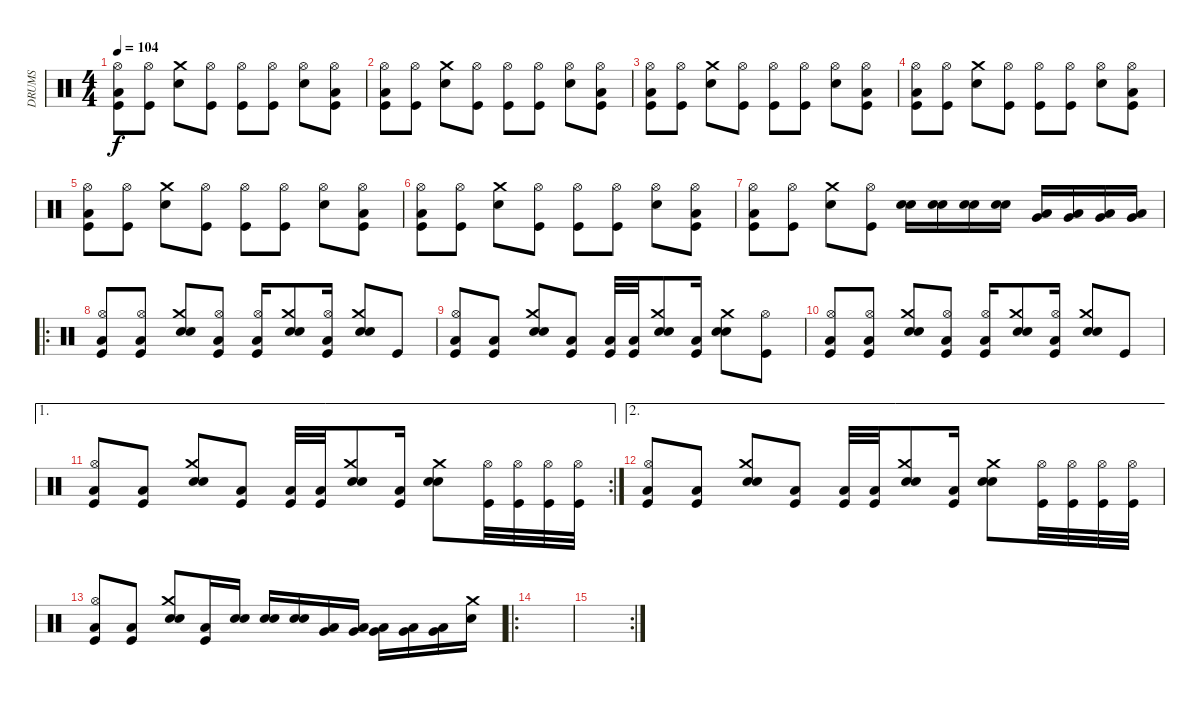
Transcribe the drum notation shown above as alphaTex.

\track ("DRUMS" "DRUMS") {instrument percussion}
\staff {score}
\articulation defaults
\ts (4 4)
\tempo 104
\clef neutral
\ks c
("Kick (hit)" "Hi-Hat (open)" "Low Floor Tom (hit)").8{dy f} ("Kick (hit)" "Hi-Hat (open)").8 ("Snare (hit) 2" "Crash medium (hit)").8 ("Kick (hit)" "Hi-Hat (open)").8 ("Kick (hit)" "Hi-Hat (open)").8 ("Kick (hit)" "Hi-Hat (open)").8 ("Snare (hit) 2" "Hi-Hat (open)").8 ("Kick (hit)" "Hi-Hat (open)" "Low Floor Tom (hit)").8 |
("Kick (hit)" "Hi-Hat (open)" "Low Floor Tom (hit)").8 ("Kick (hit)" "Hi-Hat (open)").8 ("Snare (hit) 2" "Crash medium (hit)").8 ("Kick (hit)" "Hi-Hat (open)").8 ("Kick (hit)" "Hi-Hat (open)").8 ("Kick (hit)" "Hi-Hat (open)").8 ("Snare (hit) 2" "Hi-Hat (open)").8 ("Kick (hit)" "Hi-Hat (open)" "Low Floor Tom (hit)").8 |
("Kick (hit)" "Hi-Hat (open)" "Low Floor Tom (hit)").8 ("Kick (hit)" "Hi-Hat (open)").8 ("Snare (hit) 2" "Crash medium (hit)").8 ("Kick (hit)" "Hi-Hat (open)").8 ("Kick (hit)" "Hi-Hat (open)").8 ("Kick (hit)" "Hi-Hat (open)").8 ("Snare (hit) 2" "Hi-Hat (open)").8 ("Kick (hit)" "Hi-Hat (open)" "Low Floor Tom (hit)").8 |
("Kick (hit)" "Hi-Hat (open)" "Low Floor Tom (hit)").8 ("Kick (hit)" "Hi-Hat (open)").8 ("Snare (hit) 2" "Crash medium (hit)").8 ("Kick (hit)" "Hi-Hat (open)").8 ("Kick (hit)" "Hi-Hat (open)").8 ("Kick (hit)" "Hi-Hat (open)").8 ("Snare (hit) 2" "Hi-Hat (open)").8 ("Kick (hit)" "Hi-Hat (open)" "Low Floor Tom (hit)").8 |
("Kick (hit)" "Hi-Hat (open)" "Low Floor Tom (hit)").8 ("Kick (hit)" "Hi-Hat (open)").8 ("Snare (hit) 2" "Crash medium (hit)").8 ("Kick (hit)" "Hi-Hat (open)").8 ("Kick (hit)" "Hi-Hat (open)").8 ("Kick (hit)" "Hi-Hat (open)").8 ("Snare (hit) 2" "Hi-Hat (open)").8 ("Kick (hit)" "Hi-Hat (open)" "Low Floor Tom (hit)").8 |
("Kick (hit)" "Hi-Hat (open)" "Low Floor Tom (hit)").8 ("Kick (hit)" "Hi-Hat (open)").8 ("Snare (hit) 2" "Crash medium (hit)").8 ("Kick (hit)" "Hi-Hat (open)").8 ("Kick (hit)" "Hi-Hat (open)").8 ("Kick (hit)" "Hi-Hat (open)").8 ("Snare (hit) 2" "Hi-Hat (open)").8 ("Kick (hit)" "Hi-Hat (open)" "Low Floor Tom (hit)").8 |
("Kick (hit)" "Hi-Hat (open)" "Low Floor Tom (hit)").8 ("Kick (hit)" "Hi-Hat (open)").8 ("Snare (hit) 2" "Crash medium (hit)").8 ("Kick (hit)" "Hi-Hat (open)").8 ("Snare (hit) 2" "Electric Snare (hit)").16 ("Snare (hit) 2" "Electric Snare (hit)").16 ("Snare (hit) 2" "Electric Snare (hit)").16 ("Snare (hit) 2" "Electric Snare (hit)").16 ("Low Tom (hit)" "Very Low Tom (hit)").16 ("Low Tom (hit)" "Very Low Tom (hit)").16 ("Low Tom (hit)" "Very Low Tom (hit)").16 ("Low Tom (hit)" "Very Low Tom (hit)").16 |
\ro
("Low Floor Tom (hit)" "Kick (hit)" "Hi-Hat (open)").8 ("Kick (hit)" "Low Floor Tom (hit)" "Hi-Hat (open)").8 ("Snare (hit) 2" "Electric Snare (hit)" "Crash medium (hit)").8 ("Kick (hit)" "Low Floor Tom (hit)" "Hi-Hat (open)").8 ("Kick (hit)" "Low Floor Tom (hit)" "Hi-Hat (open)").16 ("Snare (hit) 2" "Electric Snare (hit)" "Crash medium (hit)").8 ("Kick (hit)" "Low Floor Tom (hit)" "Hi-Hat (open)").16 ("Snare (hit) 2" "Electric Snare (hit)" "Crash medium (hit)").8 "Kick (hit)".8 |
("Low Floor Tom (hit)" "Kick (hit)" "Hi-Hat (open)").8 ("Kick (hit)" "Low Floor Tom (hit)").8 ("Snare (hit) 2" "Electric Snare (hit)" "Crash medium (hit)").8 ("Kick (hit)" "Low Floor Tom (hit)").8 ("Kick (hit)" "Low Floor Tom (hit)").32 ("Kick (hit)" "Low Floor Tom (hit)").32 ("Snare (hit) 2" "Electric Snare (hit)" "Crash medium (hit)").8 ("Kick (hit)" "Low Floor Tom (hit)").16 ("Snare (hit) 2" "Electric Snare (hit)" "Crash medium (hit)").8 ("Kick (hit)" "Hi-Hat (open)").8 |
("Low Floor Tom (hit)" "Kick (hit)" "Hi-Hat (open)").8 ("Kick (hit)" "Low Floor Tom (hit)" "Hi-Hat (open)").8 ("Snare (hit) 2" "Electric Snare (hit)" "Crash medium (hit)").8 ("Kick (hit)" "Low Floor Tom (hit)" "Hi-Hat (open)").8 ("Kick (hit)" "Low Floor Tom (hit)" "Hi-Hat (open)").16 ("Snare (hit) 2" "Electric Snare (hit)" "Crash medium (hit)").8 ("Kick (hit)" "Low Floor Tom (hit)" "Hi-Hat (open)").16 ("Snare (hit) 2" "Electric Snare (hit)" "Crash medium (hit)").8 "Kick (hit)".8 |
\ae 1
\rc 2
("Low Floor Tom (hit)" "Kick (hit)" "Hi-Hat (open)").8 ("Kick (hit)" "Low Floor Tom (hit)").8 ("Snare (hit) 2" "Electric Snare (hit)" "Crash medium (hit)").8 ("Kick (hit)" "Low Floor Tom (hit)").8 ("Kick (hit)" "Low Floor Tom (hit)").32 ("Kick (hit)" "Low Floor Tom (hit)").32 ("Snare (hit) 2" "Electric Snare (hit)" "Crash medium (hit)").8 ("Kick (hit)" "Low Floor Tom (hit)").16 ("Snare (hit) 2" "Electric Snare (hit)" "Crash medium (hit)").8 ("Kick (hit)" "Hi-Hat (open)").32 ("Kick (hit)" "Hi-Hat (open)").32 ("Kick (hit)" "Hi-Hat (open)").32 ("Kick (hit)" "Hi-Hat (open)").32 |
\ae 2
("Low Floor Tom (hit)" "Kick (hit)" "Hi-Hat (open)").8 ("Kick (hit)" "Low Floor Tom (hit)").8 ("Snare (hit) 2" "Electric Snare (hit)" "Crash medium (hit)").8 ("Kick (hit)" "Low Floor Tom (hit)").8 ("Kick (hit)" "Low Floor Tom (hit)").32 ("Kick (hit)" "Low Floor Tom (hit)").32 ("Snare (hit) 2" "Electric Snare (hit)" "Crash medium (hit)").8 ("Kick (hit)" "Low Floor Tom (hit)").16 ("Snare (hit) 2" "Electric Snare (hit)" "Crash medium (hit)").8 ("Kick (hit)" "Hi-Hat (open)").32 ("Kick (hit)" "Hi-Hat (open)").32 ("Kick (hit)" "Hi-Hat (open)").32 ("Kick (hit)" "Hi-Hat (open)").32 |
("Low Floor Tom (hit)" "Kick (hit)" "Hi-Hat (open)").8 ("Kick (hit)" "Low Floor Tom (hit)").8 ("Snare (hit) 2" "Electric Snare (hit)" "Crash medium (hit)").8 ("Kick (hit)" "Low Floor Tom (hit)").16 ("Electric Snare (hit)" "Snare (hit) 2").16 ("Snare (hit) 2" "Electric Snare (hit)").16 ("Snare (hit) 2" "Electric Snare (hit)").16 ("Very Low Tom (hit)" "Low Tom (hit)").16 ("Very Low Tom (hit)" "Low Tom (hit)").16 ("Very Low Tom (hit)" "Low Tom (hit)").16 ("Low Tom (hit)" "Very Low Tom (hit)").16 ("Low Tom (hit)" "Very Low Tom (hit)").16 ("Snare (hit) 2" "Crash medium (hit)").16 |
\ro
|
\rc 2
